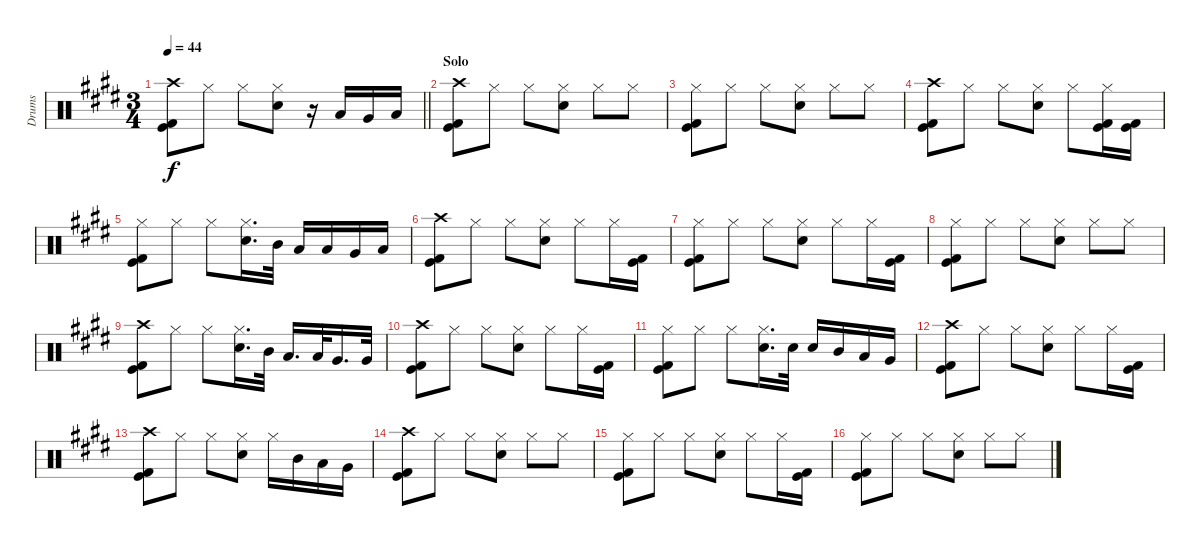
\track ("Drums" "Drums") {instrument percussion}
\staff {score}
\articulation defaults
\ts (3 4)
\tempo 44
\clef neutral
\barLineRight lightlight
\ks c#minor
("Crash high (hit)" "Kick (hit)" "Kick (hit) 2").8{dy f} "Hi-Hat (closed)".8 "Hi-Hat (closed)".8 ("Hi-Hat (closed)" "Electric Snare (hit)").8 r.16 "Low Tom (hit)".16 "Very Low Tom (hit)".16 "Low Floor Tom (hit)".16 |
\section ("" "Solo")
("Crash high (hit)" "Kick (hit)" "Kick (hit) 2").8 "Hi-Hat (closed)".8 "Hi-Hat (closed)".8 ("Hi-Hat (closed)" "Electric Snare (hit)").8 "Hi-Hat (closed)".8 "Hi-Hat (closed)".8 |
("Hi-Hat (closed)" "Kick (hit)" "Kick (hit) 2").8 "Hi-Hat (closed)".8 "Hi-Hat (closed)".8 ("Hi-Hat (closed)" "Electric Snare (hit)").8 "Hi-Hat (closed)".8 "Hi-Hat (closed)".8 |
("Crash high (hit)" "Kick (hit)" "Kick (hit) 2").8 "Hi-Hat (closed)".8 "Hi-Hat (closed)".8 ("Hi-Hat (closed)" "Electric Snare (hit)").8 "Hi-Hat (closed)".8 ("Hi-Hat (closed)" "Kick (hit)" "Kick (hit) 2").16 ("Kick (hit)" "Kick (hit) 2").16 |
("Hi-Hat (closed)" "Kick (hit)" "Kick (hit) 2").8 "Hi-Hat (closed)".8 "Hi-Hat (closed)".8 ("Hi-Hat (closed)" "Electric Snare (hit)").16{d} "Mid Tom (hit)".32 "Low Tom (hit)".16 "Low Floor Tom (hit)".16 "Very Low Tom (hit)".16 "Low Floor Tom (hit)".16 |
("Crash high (hit)" "Kick (hit)" "Kick (hit) 2").8 "Hi-Hat (closed)".8 "Hi-Hat (closed)".8 ("Hi-Hat (closed)" "Electric Snare (hit)").8 "Hi-Hat (closed)".8 "Hi-Hat (closed)".16 ("Kick (hit)" "Kick (hit) 2").16 |
("Hi-Hat (closed)" "Kick (hit)" "Kick (hit) 2").8 "Hi-Hat (closed)".8 "Hi-Hat (closed)".8 ("Hi-Hat (closed)" "Electric Snare (hit)").8 "Hi-Hat (closed)".8 "Hi-Hat (closed)".16 ("Kick (hit)" "Kick (hit) 2").16 |
("Hi-Hat (closed)" "Kick (hit)" "Kick (hit) 2").8 "Hi-Hat (closed)".8 "Hi-Hat (closed)".8 ("Hi-Hat (closed)" "Electric Snare (hit)").8 "Hi-Hat (closed)".8 "Hi-Hat (closed)".8 |
("Crash high (hit)" "Kick (hit)" "Kick (hit) 2").8 "Hi-Hat (closed)".8 "Hi-Hat (closed)".8 ("Hi-Hat (closed)" "Electric Snare (hit)").16{d} "Mid Tom (hit)".32 "Low Tom (hit)".16{d} "Low Tom (hit)".32 "Very Low Tom (hit)".16{d} "Very Low Tom (hit)".32 |
("Crash high (hit)" "Kick (hit)" "Kick (hit) 2").8 "Hi-Hat (closed)".8 "Hi-Hat (closed)".8 ("Hi-Hat (closed)" "Electric Snare (hit)").8 "Hi-Hat (closed)".8 "Hi-Hat (closed)".16 ("Kick (hit)" "Kick (hit) 2").16 |
("Hi-Hat (closed)" "Kick (hit)" "Kick (hit) 2").8 "Hi-Hat (closed)".8 "Hi-Hat (closed)".8 ("Hi-Hat (closed)" "Electric Snare (hit)").16{d} "Electric Snare (hit)".32 "Electric Snare (hit)".16 "Mid Tom (hit)".16 "Low Tom (hit)".16 "Very Low Tom (hit)".16 |
("Crash high (hit)" "Kick (hit)" "Kick (hit) 2").8 "Hi-Hat (closed)".8 "Hi-Hat (closed)".8 ("Hi-Hat (closed)" "Electric Snare (hit)").8 "Hi-Hat (closed)".8 "Hi-Hat (closed)".16 ("Kick (hit)" "Kick (hit) 2").16 |
("Crash high (hit)" "Kick (hit)" "Kick (hit) 2").8 "Hi-Hat (closed)".8 "Hi-Hat (closed)".8 ("Hi-Hat (closed)" "Electric Snare (hit)").8 "Hi-Hat (closed)".16 "Mid Tom (hit)".16 "Low Tom (hit)".16 "Very Low Tom (hit)".16 |
("Crash high (hit)" "Kick (hit)" "Kick (hit) 2").8 "Hi-Hat (closed)".8 "Hi-Hat (closed)".8 ("Hi-Hat (closed)" "Electric Snare (hit)").8 "Hi-Hat (closed)".8 "Hi-Hat (closed)".8 |
("Hi-Hat (closed)" "Kick (hit)" "Kick (hit) 2").8 "Hi-Hat (closed)".8 "Hi-Hat (closed)".8 ("Hi-Hat (closed)" "Electric Snare (hit)").8 "Hi-Hat (closed)".8 "Hi-Hat (closed)".16 ("Kick (hit)" "Kick (hit) 2").16 |
("Hi-Hat (closed)" "Kick (hit)" "Kick (hit) 2").8 "Hi-Hat (closed)".8 "Hi-Hat (closed)".8 ("Hi-Hat (closed)" "Electric Snare (hit)").8 "Hi-Hat (closed)".8 "Hi-Hat (closed)".8
